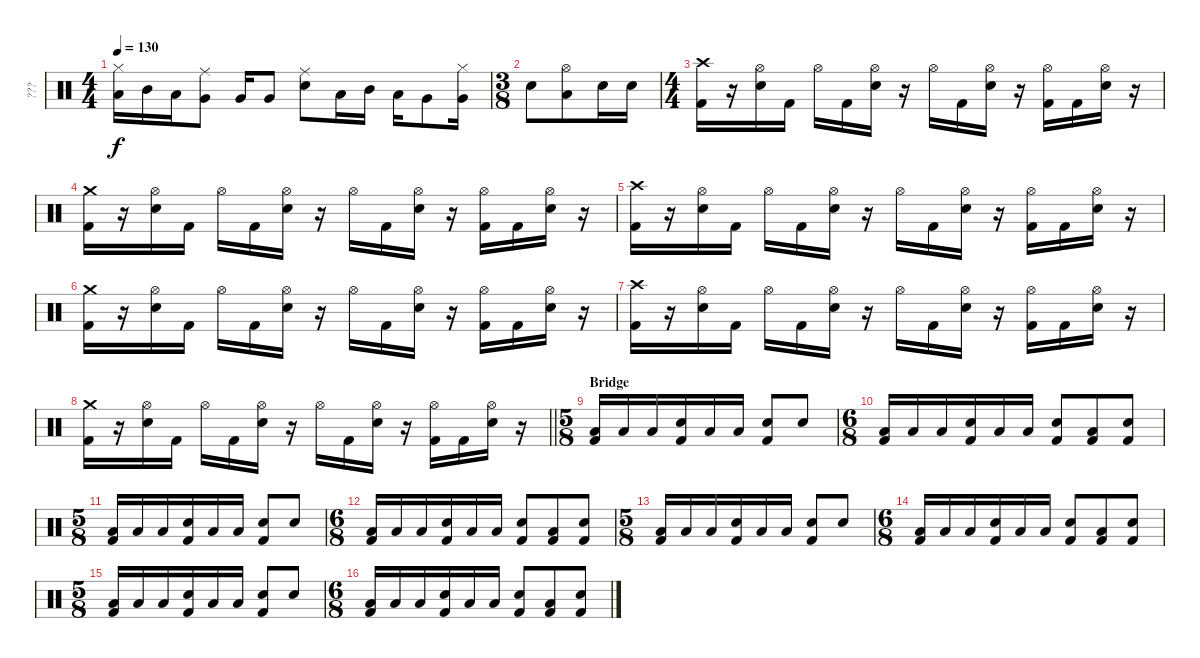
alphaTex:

\track ("???" "???") {instrument percussion}
\staff {score}
\articulation defaults
\ts (4 4)
\tempo 130
\clef neutral
\ks c
("Hi-Hat (closed)" "Low Tom (hit)").16{dy f} "Mid Tom (hit)".16 "Low Tom (hit)".16 ("Ride (middle)" "Very Low Tom (hit)").8 "Very Low Tom (hit)".16 "Very Low Tom (hit)".8 ("Ride (middle)" "Electric Snare (hit)").8 "Low Tom (hit)".16 "Mid Tom (hit)".16 "Low Tom (hit)".16 "Very Low Tom (hit)".8 ("Hi-Hat (closed)" "Very Low Tom (hit)").16 |
\ts (3 8)
"Electric Snare (hit)".8 ("Hi-Hat (open)" "Low Floor Tom (hit)").8 "Electric Snare (hit)".16 "Electric Snare (hit)".16 |
\ts (4 4)
("Crash high (hit)" "Kick (hit) 2").16 r.16 ("Hi-Hat (open)" "Electric Snare (hit)").16 "Kick (hit) 2".16 "Hi-Hat (open)".16 "Kick (hit) 2".16 ("Hi-Hat (open)" "Electric Snare (hit)").16 r.16 "Hi-Hat (open)".16 "Kick (hit) 2".16 ("Hi-Hat (open)" "Electric Snare (hit)").16 r.16 ("Hi-Hat (open)" "Kick (hit) 2").16 "Kick (hit) 2".16 ("Hi-Hat (open)" "Electric Snare (hit)").16 r.16 |
("Crash medium (hit)" "Kick (hit) 2").16 r.16 ("Hi-Hat (open)" "Electric Snare (hit)").16 "Kick (hit) 2".16 "Hi-Hat (open)".16 "Kick (hit) 2".16 ("Hi-Hat (open)" "Electric Snare (hit)").16 r.16 "Hi-Hat (open)".16 "Kick (hit) 2".16 ("Hi-Hat (open)" "Electric Snare (hit)").16 r.16 ("Hi-Hat (open)" "Kick (hit) 2").16 "Kick (hit) 2".16 ("Hi-Hat (open)" "Electric Snare (hit)").16 r.16 |
("Crash high (hit)" "Kick (hit) 2").16 r.16 ("Hi-Hat (open)" "Electric Snare (hit)").16 "Kick (hit) 2".16 "Hi-Hat (open)".16 "Kick (hit) 2".16 ("Hi-Hat (open)" "Electric Snare (hit)").16 r.16 "Hi-Hat (open)".16 "Kick (hit) 2".16 ("Hi-Hat (open)" "Electric Snare (hit)").16 r.16 ("Hi-Hat (open)" "Kick (hit) 2").16 "Kick (hit) 2".16 ("Hi-Hat (open)" "Electric Snare (hit)").16 r.16 |
("Crash medium (hit)" "Kick (hit) 2").16 r.16 ("Hi-Hat (open)" "Electric Snare (hit)").16 "Kick (hit) 2".16 "Hi-Hat (open)".16 "Kick (hit) 2".16 ("Hi-Hat (open)" "Electric Snare (hit)").16 r.16 "Hi-Hat (open)".16 "Kick (hit) 2".16 ("Hi-Hat (open)" "Electric Snare (hit)").16 r.16 ("Hi-Hat (open)" "Kick (hit) 2").16 "Kick (hit) 2".16 ("Hi-Hat (open)" "Electric Snare (hit)").16 r.16 |
("Crash high (hit)" "Kick (hit) 2").16 r.16 ("Hi-Hat (open)" "Electric Snare (hit)").16 "Kick (hit) 2".16 "Hi-Hat (open)".16 "Kick (hit) 2".16 ("Hi-Hat (open)" "Electric Snare (hit)").16 r.16 "Hi-Hat (open)".16 "Kick (hit) 2".16 ("Hi-Hat (open)" "Electric Snare (hit)").16 r.16 ("Hi-Hat (open)" "Kick (hit) 2").16 "Kick (hit) 2".16 ("Hi-Hat (open)" "Electric Snare (hit)").16 r.16 |
\barLineRight lightlight
("Crash medium (hit)" "Kick (hit) 2").16 r.16 ("Hi-Hat (open)" "Electric Snare (hit)").16 "Kick (hit) 2".16 "Hi-Hat (open)".16 "Kick (hit) 2".16 ("Hi-Hat (open)" "Electric Snare (hit)").16 r.16 "Hi-Hat (open)".16 "Kick (hit) 2".16 ("Hi-Hat (open)" "Electric Snare (hit)").16 r.16 ("Hi-Hat (open)" "Kick (hit) 2").16 "Kick (hit) 2".16 ("Hi-Hat (open)" "Electric Snare (hit)").16 r.16 |
\ts (5 8)
\section ("" "Bridge")
("Low Tom (hit)" "Kick (hit) 2").16 "Low Tom (hit)".16 "Low Tom (hit)".16 ("Electric Snare (hit)" "Kick (hit) 2").16 "Low Tom (hit)".16 "Low Tom (hit)".16 ("Electric Snare (hit)" "Kick (hit) 2").8 "Electric Snare (hit)".8 |
\ts (6 8)
("Low Tom (hit)" "Kick (hit) 2").16 "Low Tom (hit)".16 "Low Tom (hit)".16 ("Electric Snare (hit)" "Kick (hit) 2").16 "Low Tom (hit)".16 "Low Tom (hit)".16 ("Electric Snare (hit)" "Kick (hit) 2").8 ("Low Tom (hit)" "Kick (hit) 2").8 ("Electric Snare (hit)" "Kick (hit) 2").8 |
\ts (5 8)
("Low Tom (hit)" "Kick (hit) 2").16 "Low Tom (hit)".16 "Low Tom (hit)".16 ("Electric Snare (hit)" "Kick (hit) 2").16 "Low Tom (hit)".16 "Low Tom (hit)".16 ("Electric Snare (hit)" "Kick (hit) 2").8 "Electric Snare (hit)".8 |
\ts (6 8)
("Low Tom (hit)" "Kick (hit) 2").16 "Low Tom (hit)".16 "Low Tom (hit)".16 ("Electric Snare (hit)" "Kick (hit) 2").16 "Low Tom (hit)".16 "Low Tom (hit)".16 ("Electric Snare (hit)" "Kick (hit) 2").8 ("Low Tom (hit)" "Kick (hit) 2").8 ("Electric Snare (hit)" "Kick (hit) 2").8 |
\ts (5 8)
("Low Tom (hit)" "Kick (hit) 2").16 "Low Tom (hit)".16 "Low Tom (hit)".16 ("Electric Snare (hit)" "Kick (hit) 2").16 "Low Tom (hit)".16 "Low Tom (hit)".16 ("Electric Snare (hit)" "Kick (hit) 2").8 "Electric Snare (hit)".8 |
\ts (6 8)
("Low Tom (hit)" "Kick (hit) 2").16 "Low Tom (hit)".16 "Low Tom (hit)".16 ("Electric Snare (hit)" "Kick (hit) 2").16 "Low Tom (hit)".16 "Low Tom (hit)".16 ("Electric Snare (hit)" "Kick (hit) 2").8 ("Low Tom (hit)" "Kick (hit) 2").8 ("Electric Snare (hit)" "Kick (hit) 2").8 |
\ts (5 8)
("Low Tom (hit)" "Kick (hit) 2").16 "Low Tom (hit)".16 "Low Tom (hit)".16 ("Electric Snare (hit)" "Kick (hit) 2").16 "Low Tom (hit)".16 "Low Tom (hit)".16 ("Electric Snare (hit)" "Kick (hit) 2").8 "Electric Snare (hit)".8 |
\ts (6 8)
("Low Tom (hit)" "Kick (hit) 2").16 "Low Tom (hit)".16 "Low Tom (hit)".16 ("Electric Snare (hit)" "Kick (hit) 2").16 "Low Tom (hit)".16 "Low Tom (hit)".16 ("Electric Snare (hit)" "Kick (hit) 2").8 ("Low Tom (hit)" "Kick (hit) 2").8 ("Electric Snare (hit)" "Kick (hit) 2").8
